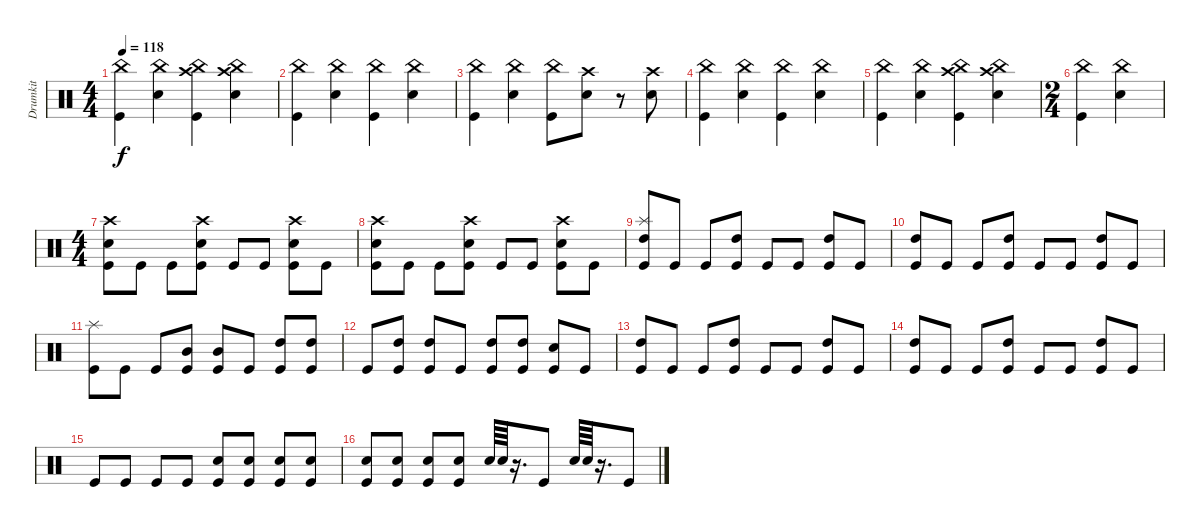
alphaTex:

\track ("Drumkit" "Drumkit") {instrument percussion}
\staff {score}
\articulation defaults
\ts (4 4)
\tempo 118
\clef neutral
\ks c
("China (hit)" "Kick (hit)").4{dy f} ("China (hit)" "Snare (hit) 2").4 ("China (hit)" "Kick (hit)" "Crash high (hit)").4 ("China (hit)" "Snare (hit) 2" "Crash high (hit)").4 |
("China (hit)" "Kick (hit)").4 ("China (hit)" "Snare (hit) 2").4 ("China (hit)" "Kick (hit)").4 ("China (hit)" "Snare (hit) 2").4 |
("China (hit)" "Kick (hit)").4 ("China (hit)" "Snare (hit) 2").4 ("China (hit)" "Kick (hit)").8 ("Snare (hit) 2" "Crash high (hit)").8 r.8 ("Snare (hit) 2" "Crash high (hit)").8 |
("China (hit)" "Kick (hit)").4 ("China (hit)" "Snare (hit) 2").4 ("China (hit)" "Kick (hit)").4 ("China (hit)" "Snare (hit) 2").4 |
("China (hit)" "Kick (hit)").4 ("China (hit)" "Snare (hit) 2").4 ("China (hit)" "Kick (hit)" "Crash high (hit)").4 ("China (hit)" "Snare (hit) 2" "Crash high (hit)").4 |
\ts (2 4)
("China (hit)" "Kick (hit)").4 ("China (hit)" "Snare (hit) 2").4 |
\ts (4 4)
("Crash high (hit)" "Kick (hit)" "Snare (hit) 2").8 "Kick (hit)".8 "Kick (hit)".8 ("Crash high (hit)" "Kick (hit)" "Snare (hit) 2").8 "Kick (hit)".8 "Kick (hit)".8 ("Crash high (hit)" "Kick (hit)" "Snare (hit) 2").8 "Kick (hit)".8 |
("Crash high (hit)" "Kick (hit)" "Snare (hit) 2").8 "Kick (hit)".8 "Kick (hit)".8 ("Crash high (hit)" "Kick (hit)" "Snare (hit) 2").8 "Kick (hit)".8 "Kick (hit)".8 ("Crash high (hit)" "Kick (hit)" "Snare (hit) 2").8 "Kick (hit)".8 |
("Splash (hit)" "Kick (hit)" "High Tom (hit)").8 "Kick (hit)".8 "Kick (hit)".8 ("Kick (hit)" "High Tom (hit)").8 "Kick (hit)".8 "Kick (hit)".8 ("Kick (hit)" "High Tom (hit)").8 "Kick (hit)".8 |
("Kick (hit)" "High Tom (hit)").8 "Kick (hit)".8 "Kick (hit)".8 ("Kick (hit)" "High Tom (hit)").8 "Kick (hit)".8 "Kick (hit)".8 ("Kick (hit)" "High Tom (hit)").8 "Kick (hit)".8 |
("Kick (hit)" "Splash (hit)").8 "Kick (hit)".8 "Kick (hit)".8 ("Kick (hit)" "Mid Tom (hit)").8 ("Kick (hit)" "Mid Tom (hit)").8 "Kick (hit)".8 ("Kick (hit)" "High Tom (hit)").8 ("Kick (hit)" "High Tom (hit)").8 |
"Kick (hit)".8 ("Kick (hit)" "High Tom (hit)").8 ("Kick (hit)" "High Tom (hit)").8 "Kick (hit)".8 ("Kick (hit)" "High Tom (hit)").8 ("Kick (hit)" "High Tom (hit)").8 ("Kick (hit)" "Snare (hit) 2").8 "Kick (hit)".8 |
("Kick (hit)" "High Tom (hit)").8 "Kick (hit)".8 "Kick (hit)".8 ("Kick (hit)" "High Tom (hit)").8 "Kick (hit)".8 "Kick (hit)".8 ("Kick (hit)" "High Tom (hit)").8 "Kick (hit)".8 |
("Kick (hit)" "High Tom (hit)").8 "Kick (hit)".8 "Kick (hit)".8 ("Kick (hit)" "High Tom (hit)").8 "Kick (hit)".8 "Kick (hit)".8 ("Kick (hit)" "High Tom (hit)").8 "Kick (hit)".8 |
"Kick (hit)".8 "Kick (hit)".8 "Kick (hit)".8 "Kick (hit)".8 ("Kick (hit)" "Snare (hit) 2").8 ("Kick (hit)" "Snare (hit) 2").8 ("Kick (hit)" "Snare (hit) 2").8 ("Kick (hit)" "Snare (hit) 2").8 |
("Kick (hit)" "Snare (hit) 2").8 ("Kick (hit)" "Snare (hit) 2").8 ("Kick (hit)" "Snare (hit) 2").8 ("Kick (hit)" "Snare (hit) 2").8 "Snare (hit) 2".64 "Snare (hit) 2".64 r.16{d} "Kick (hit)".8 "Snare (hit) 2".64 "Snare (hit) 2".64 r.16{d} "Kick (hit)".8
